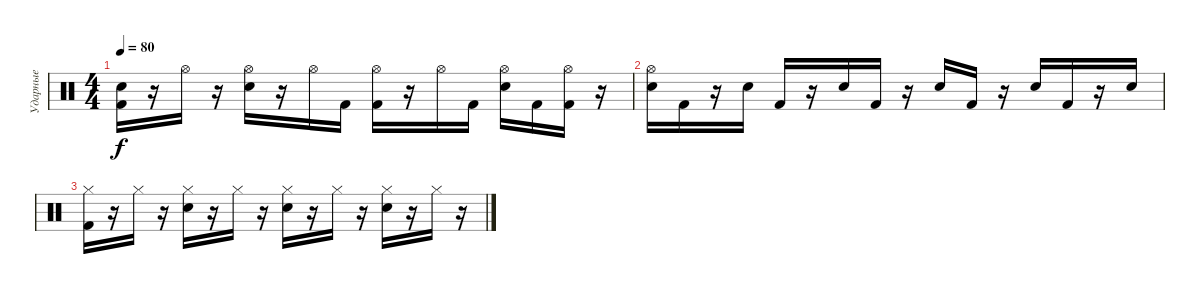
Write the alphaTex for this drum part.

\track ("Ударные" "Ударные") {instrument percussion}
\staff {score}
\articulation defaults
\ts (4 4)
\tempo 80
\clef neutral
\ks c
("Electric Snare (hit)" "Kick (hit) 2").16{dy f} r.16 "Hi-Hat (open)".16 r.16 ("Hi-Hat (open)" "Electric Snare (hit)").16 r.16 "Hi-Hat (open)".16 "Kick (hit) 2".16 ("Hi-Hat (open)" "Kick (hit) 2").16 r.16 "Hi-Hat (open)".16 "Kick (hit) 2".16 ("Hi-Hat (open)" "Electric Snare (hit)").16 "Kick (hit) 2".16 ("Hi-Hat (open)" "Kick (hit) 2").16 r.16 |
("Hi-Hat (open)" "Electric Snare (hit)").16 "Kick (hit) 2".16 r.16 "Electric Snare (hit)".16 "Kick (hit) 2".16 r.16 "Electric Snare (hit)".16 "Kick (hit) 2".16 r.16 "Electric Snare (hit)".16 "Kick (hit) 2".16 r.16 "Electric Snare (hit)".16 "Kick (hit) 2".16 r.16 "Electric Snare (hit)".16 |
("Hi-Hat (closed)" "Kick (hit) 2").16 r.16 "Hi-Hat (closed)".16 r.16 ("Hi-Hat (closed)" "Electric Snare (hit)").16 r.16 "Hi-Hat (closed)".16 r.16 ("Hi-Hat (closed)" "Electric Snare (hit)").16 r.16 "Hi-Hat (closed)".16 r.16 ("Hi-Hat (closed)" "Electric Snare (hit)").16 r.16 "Hi-Hat (closed)".16 r.16
